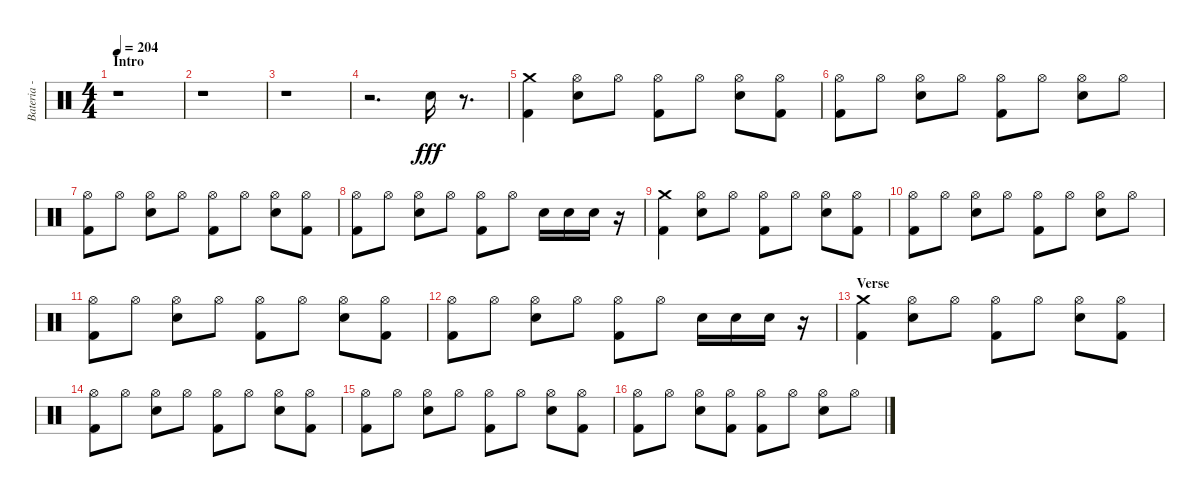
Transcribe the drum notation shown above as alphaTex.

\track ("Bateria - Larzon" "Bateria - ") {instrument percussion}
\staff {score}
\articulation defaults
\ts (4 4)
\section ("" "Intro")
\tempo 204
\clef neutral
\ks c
r.1{dy fff} |
r.1 |
r.1 |
r.2{d} "Electric Snare (hit)".16 r.8{d} |
("Crash medium (hit)" "Kick (hit) 2").4 ("Hi-Hat (open)" "Electric Snare (hit)").8 "Hi-Hat (open)".8 ("Kick (hit) 2" "Hi-Hat (open)").8 "Hi-Hat (open)".8 ("Electric Snare (hit)" "Hi-Hat (open)").8 ("Kick (hit) 2" "Hi-Hat (open)").8 |
("Kick (hit) 2" "Hi-Hat (open)").8 "Hi-Hat (open)".8 ("Electric Snare (hit)" "Hi-Hat (open)").8 "Hi-Hat (open)".8 ("Kick (hit) 2" "Hi-Hat (open)").8 "Hi-Hat (open)".8 ("Electric Snare (hit)" "Hi-Hat (open)").8 "Hi-Hat (open)".8 |
("Kick (hit) 2" "Hi-Hat (open)").8 "Hi-Hat (open)".8 ("Electric Snare (hit)" "Hi-Hat (open)").8 "Hi-Hat (open)".8 ("Kick (hit) 2" "Hi-Hat (open)").8 "Hi-Hat (open)".8 ("Electric Snare (hit)" "Hi-Hat (open)").8 ("Kick (hit) 2" "Hi-Hat (open)").8 |
("Kick (hit) 2" "Hi-Hat (open)").8 "Hi-Hat (open)".8 ("Electric Snare (hit)" "Hi-Hat (open)").8 "Hi-Hat (open)".8 ("Kick (hit) 2" "Hi-Hat (open)").8 "Hi-Hat (open)".8 "Electric Snare (hit)".16 "Electric Snare (hit)".16 "Electric Snare (hit)".16 r.16 |
("Crash medium (hit)" "Kick (hit) 2").4 ("Hi-Hat (open)" "Electric Snare (hit)").8 "Hi-Hat (open)".8 ("Kick (hit) 2" "Hi-Hat (open)").8 "Hi-Hat (open)".8 ("Electric Snare (hit)" "Hi-Hat (open)").8 ("Kick (hit) 2" "Hi-Hat (open)").8 |
("Kick (hit) 2" "Hi-Hat (open)").8 "Hi-Hat (open)".8 ("Electric Snare (hit)" "Hi-Hat (open)").8 "Hi-Hat (open)".8 ("Kick (hit) 2" "Hi-Hat (open)").8 "Hi-Hat (open)".8 ("Electric Snare (hit)" "Hi-Hat (open)").8 "Hi-Hat (open)".8 |
("Kick (hit) 2" "Hi-Hat (open)").8 "Hi-Hat (open)".8 ("Electric Snare (hit)" "Hi-Hat (open)").8 "Hi-Hat (open)".8 ("Kick (hit) 2" "Hi-Hat (open)").8 "Hi-Hat (open)".8 ("Electric Snare (hit)" "Hi-Hat (open)").8 ("Kick (hit) 2" "Hi-Hat (open)").8 |
("Kick (hit) 2" "Hi-Hat (open)").8 "Hi-Hat (open)".8 ("Electric Snare (hit)" "Hi-Hat (open)").8 "Hi-Hat (open)".8 ("Kick (hit) 2" "Hi-Hat (open)").8 "Hi-Hat (open)".8 "Electric Snare (hit)".16 "Electric Snare (hit)".16 "Electric Snare (hit)".16 r.16 |
\section ("" "Verse")
("Crash medium (hit)" "Kick (hit) 2").4 ("Hi-Hat (open)" "Electric Snare (hit)").8 "Hi-Hat (open)".8 ("Kick (hit) 2" "Hi-Hat (open)").8 "Hi-Hat (open)".8 ("Electric Snare (hit)" "Hi-Hat (open)").8 ("Kick (hit) 2" "Hi-Hat (open)").8 |
("Kick (hit) 2" "Hi-Hat (open)").8 "Hi-Hat (open)".8 ("Electric Snare (hit)" "Hi-Hat (open)").8 "Hi-Hat (open)".8 ("Kick (hit) 2" "Hi-Hat (open)").8 "Hi-Hat (open)".8 ("Electric Snare (hit)" "Hi-Hat (open)").8 ("Hi-Hat (open)" "Kick (hit) 2").8 |
("Kick (hit) 2" "Hi-Hat (open)").8 "Hi-Hat (open)".8 ("Electric Snare (hit)" "Hi-Hat (open)").8 "Hi-Hat (open)".8 ("Kick (hit) 2" "Hi-Hat (open)").8 "Hi-Hat (open)".8 ("Electric Snare (hit)" "Hi-Hat (open)").8 ("Kick (hit) 2" "Hi-Hat (open)").8 |
("Kick (hit) 2" "Hi-Hat (open)").8 "Hi-Hat (open)".8 ("Electric Snare (hit)" "Hi-Hat (open)").8 ("Kick (hit) 2" "Hi-Hat (open)").8 ("Kick (hit) 2" "Hi-Hat (open)").8 "Hi-Hat (open)".8 ("Electric Snare (hit)" "Hi-Hat (open)").8 "Hi-Hat (open)".8
